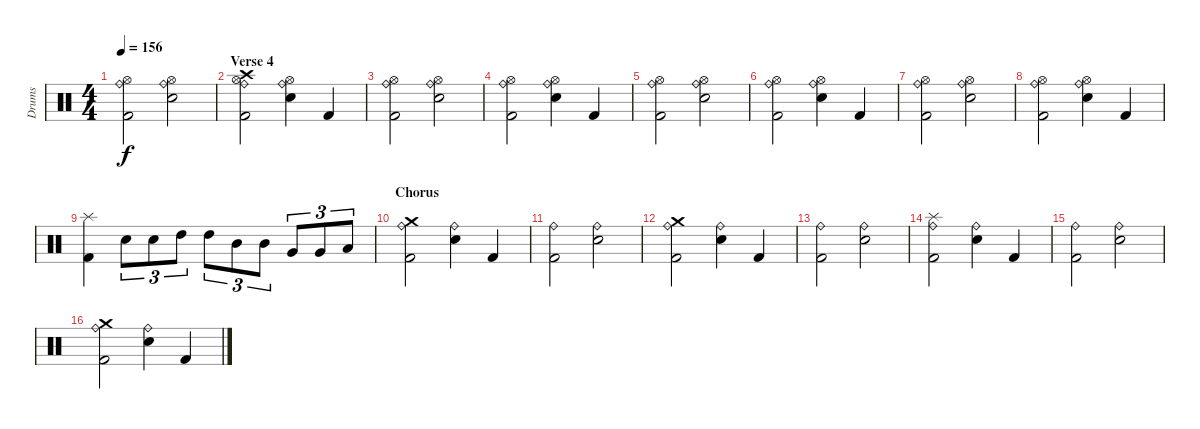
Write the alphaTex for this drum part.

\track ("Drums" "Drums") {instrument percussion}
\staff {score}
\articulation defaults
\ts (4 4)
\tempo 156
\clef neutral
\ks c
("Kick (hit) 2" "Ride (bell)" "Hi-Hat (open)").2{dy f} ("Electric Snare (hit)" "Ride (bell)" "Hi-Hat (open)").2 |
\section ("" "Verse 4")
("Kick (hit) 2" "Crash high (hit)" "Ride (bell)" "Hi-Hat (open)").2 ("Electric Snare (hit)" "Ride (bell)" "Hi-Hat (open)").4 "Kick (hit) 2".4 |
("Kick (hit) 2" "Ride (bell)" "Hi-Hat (open)").2 ("Electric Snare (hit)" "Ride (bell)" "Hi-Hat (open)").2 |
("Kick (hit) 2" "Ride (bell)" "Hi-Hat (open)").2 ("Electric Snare (hit)" "Ride (bell)" "Hi-Hat (open)").4 "Kick (hit) 2".4 |
("Kick (hit) 2" "Ride (bell)" "Hi-Hat (open)").2 ("Electric Snare (hit)" "Ride (bell)" "Hi-Hat (open)").2 |
("Kick (hit) 2" "Ride (bell)" "Hi-Hat (open)").2 ("Electric Snare (hit)" "Ride (bell)" "Hi-Hat (open)").4 "Kick (hit) 2".4 |
("Kick (hit) 2" "Ride (bell)" "Hi-Hat (open)").2 ("Electric Snare (hit)" "Ride (bell)" "Hi-Hat (open)").2 |
("Kick (hit) 2" "Ride (bell)" "Hi-Hat (open)").2 ("Electric Snare (hit)" "Ride (bell)" "Hi-Hat (open)").4 "Kick (hit) 2".4 |
("Kick (hit) 2" "Splash (hit)").4 "Electric Snare (hit)".8{tu (3 2)} "Electric Snare (hit)".8{tu (3 2)} "High Tom (hit)".8{tu (3 2)} "High Tom (hit)".8{tu (3 2)} "Mid Tom (hit)".8{tu (3 2)} "Mid Tom (hit)".8{tu (3 2)} "Very Low Tom (hit)".8{tu (3 2)} "Very Low Tom (hit)".8{tu (3 2)} "Low Floor Tom (hit)".8{tu (3 2)} |
\section ("" "Chorus")
("Kick (hit) 2" "Ride (bell)" "Crash medium (hit)").2 ("Electric Snare (hit)" "Ride (bell)").4 "Kick (hit) 2".4 |
("Kick (hit) 2" "Ride (bell)").2 ("Electric Snare (hit)" "Ride (bell)").2 |
("Kick (hit) 2" "Ride (bell)" "Crash medium (hit)").2 ("Electric Snare (hit)" "Ride (bell)").4 "Kick (hit) 2".4 |
("Kick (hit) 2" "Ride (bell)").2 ("Electric Snare (hit)" "Ride (bell)").2 |
("Kick (hit) 2" "Splash (hit)" "Ride (bell)").2 ("Electric Snare (hit)" "Ride (bell)").4 "Kick (hit) 2".4 |
("Kick (hit) 2" "Ride (bell)").2 ("Electric Snare (hit)" "Ride (bell)").2 |
("Kick (hit) 2" "Ride (bell)" "Crash medium (hit)").2 ("Electric Snare (hit)" "Ride (bell)").4 "Kick (hit) 2".4
